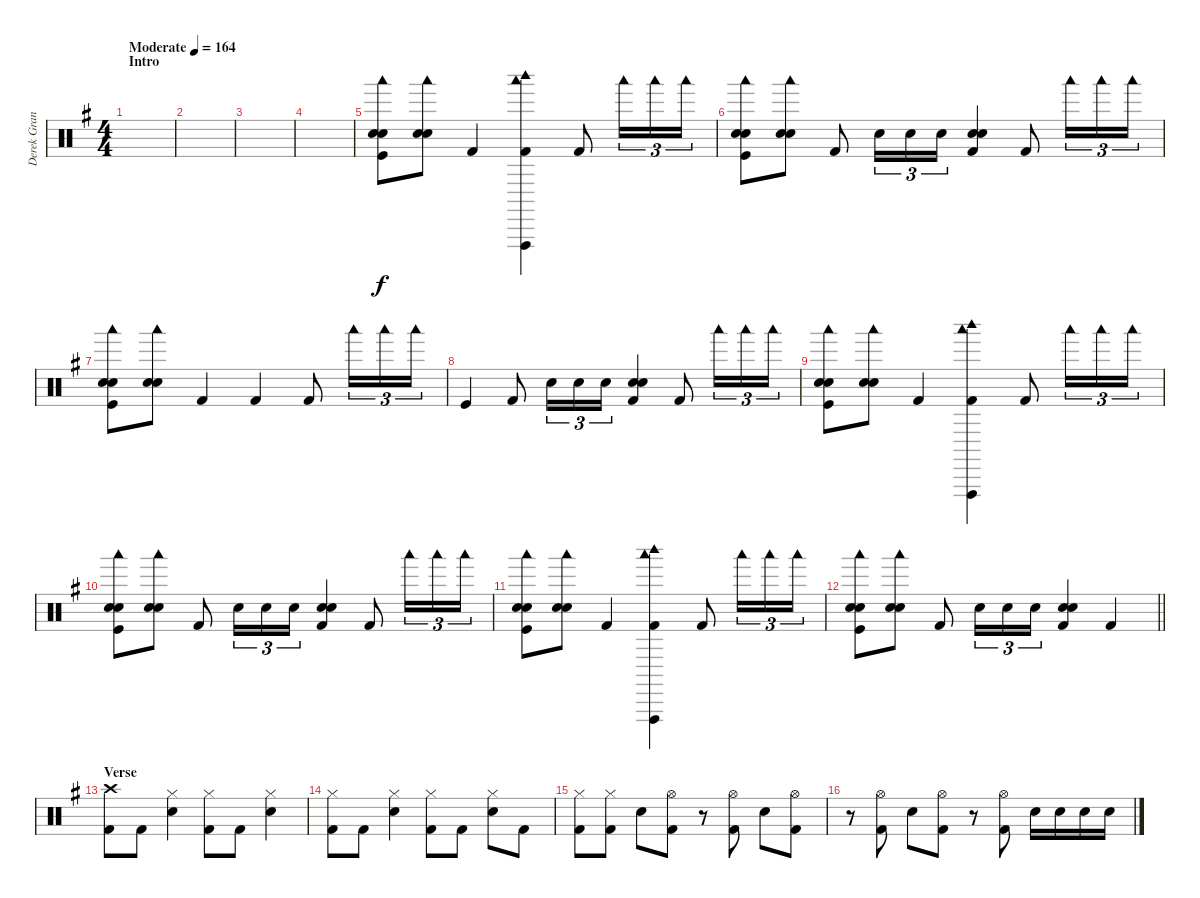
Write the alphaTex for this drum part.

\track ("Derek Grant - Drums" "Derek Gran") {instrument percussion}
\staff {score}
\articulation defaults
\ts (4 4)
\section ("" "Intro")
\tempo (164 "Moderate")
\clef neutral
\ks eminor
|
|
|
|
("Kick (hit)" "Snare (hit) 2" "Snare (hit) 2" "Woodblock low (hit)").8 ("Snare (hit) 2" "Snare (hit) 2" "Woodblock low (hit)").8 "Kick (hit) 2".4 ("Kick (hit) 2" "Vibraslap (hit)" "Woodblock low (hit)" "Woodblock high (hit)").4 "Kick (hit) 2".8 "Woodblock low (hit)".16{tu (3 2)} "Woodblock low (hit)".16{tu (3 2)} "Woodblock low (hit)".16{tu (3 2)} |
("Kick (hit)" "Snare (hit) 2" "Snare (hit) 2" "Woodblock low (hit)").8 ("Snare (hit) 2" "Snare (hit) 2" "Woodblock low (hit)").8 "Kick (hit) 2".8 "Snare (hit) 2".16{tu (3 2)} "Snare (hit) 2".16{tu (3 2)} "Snare (hit) 2".16{tu (3 2)} ("Snare (hit) 2" "Snare (hit) 2" "Kick (hit) 2").4 "Kick (hit) 2".8 "Woodblock low (hit)".16{tu (3 2)} "Woodblock low (hit)".16{tu (3 2)} "Woodblock low (hit)".16{tu (3 2)} |
("Kick (hit)" "Snare (hit) 2" "Snare (hit) 2" "Woodblock low (hit)").8 ("Snare (hit) 2" "Snare (hit) 2" "Woodblock low (hit)").8 "Kick (hit) 2".4 "Kick (hit) 2".4 "Kick (hit) 2".8 "Woodblock low (hit)".16{tu (3 2)} "Woodblock low (hit)".16{tu (3 2)} "Woodblock low (hit)".16{tu (3 2)} |
"Kick (hit)".4 "Kick (hit) 2".8 "Snare (hit) 2".16{tu (3 2)} "Snare (hit) 2".16{tu (3 2)} "Snare (hit) 2".16{tu (3 2)} ("Snare (hit) 2" "Snare (hit) 2" "Kick (hit) 2").4 "Kick (hit) 2".8 "Woodblock low (hit)".16{tu (3 2)} "Woodblock low (hit)".16{tu (3 2)} "Woodblock low (hit)".16{tu (3 2)} |
("Kick (hit)" "Snare (hit) 2" "Snare (hit) 2" "Woodblock low (hit)").8 ("Snare (hit) 2" "Snare (hit) 2" "Woodblock low (hit)").8 "Kick (hit) 2".4 ("Kick (hit) 2" "Vibraslap (hit)" "Woodblock low (hit)" "Woodblock high (hit)").4 "Kick (hit) 2".8 "Woodblock low (hit)".16{tu (3 2)} "Woodblock low (hit)".16{tu (3 2)} "Woodblock low (hit)".16{tu (3 2)} |
("Kick (hit)" "Snare (hit) 2" "Snare (hit) 2" "Woodblock low (hit)").8 ("Snare (hit) 2" "Snare (hit) 2" "Woodblock low (hit)").8 "Kick (hit) 2".8 "Snare (hit) 2".16{tu (3 2)} "Snare (hit) 2".16{tu (3 2)} "Snare (hit) 2".16{tu (3 2)} ("Snare (hit) 2" "Snare (hit) 2" "Kick (hit) 2").4 "Kick (hit) 2".8 "Woodblock low (hit)".16{tu (3 2)} "Woodblock low (hit)".16{tu (3 2)} "Woodblock low (hit)".16{tu (3 2)} |
("Kick (hit)" "Snare (hit) 2" "Snare (hit) 2" "Woodblock low (hit)").8 ("Snare (hit) 2" "Snare (hit) 2" "Woodblock low (hit)").8 "Kick (hit) 2".4 ("Kick (hit) 2" "Vibraslap (hit)" "Woodblock low (hit)" "Woodblock high (hit)").4 "Kick (hit) 2".8 "Woodblock low (hit)".16{tu (3 2)} "Woodblock low (hit)".16{tu (3 2)} "Woodblock low (hit)".16{tu (3 2)} |
\barLineRight lightlight
("Kick (hit)" "Snare (hit) 2" "Snare (hit) 2" "Woodblock low (hit)").8 ("Snare (hit) 2" "Snare (hit) 2" "Woodblock low (hit)").8 "Kick (hit) 2".8 "Snare (hit) 2".16{tu (3 2)} "Snare (hit) 2".16{tu (3 2)} "Snare (hit) 2".16{tu (3 2)} ("Snare (hit) 2" "Snare (hit) 2" "Kick (hit) 2").4 "Kick (hit) 2".4 |
\section ("" "Verse")
("Crash high (hit)" "Kick (hit) 2").8 "Kick (hit) 2".8 ("Snare (hit) 2" "Hi-Hat (closed)").4 ("Kick (hit) 2" "Hi-Hat (closed)").8 "Kick (hit) 2".8 ("Snare (hit) 2" "Hi-Hat (closed)").4 |
("Kick (hit) 2" "Hi-Hat (closed)").8 "Kick (hit) 2".8 ("Snare (hit) 2" "Hi-Hat (closed)").4 ("Kick (hit) 2" "Hi-Hat (closed)").8 "Kick (hit) 2".8 ("Snare (hit) 2" "Hi-Hat (closed)").8 "Kick (hit) 2".8 |
("Kick (hit) 2" "Hi-Hat (closed)").8 ("Kick (hit) 2" "Hi-Hat (closed)").8 "Snare (hit) 2".8 ("Kick (hit) 2" "Hi-Hat (open)").8 r.8 ("Kick (hit) 2" "Hi-Hat (open)").8 "Snare (hit) 2".8 ("Hi-Hat (open)" "Kick (hit) 2").8 |
r.8 ("Kick (hit) 2" "Hi-Hat (open)").8 "Snare (hit) 2".8 ("Hi-Hat (open)" "Kick (hit) 2").8 r.8 ("Kick (hit) 2" "Hi-Hat (open)").8 "Snare (hit) 2".16 "Snare (hit) 2".16 "Snare (hit) 2".16 "Snare (hit) 2".16
